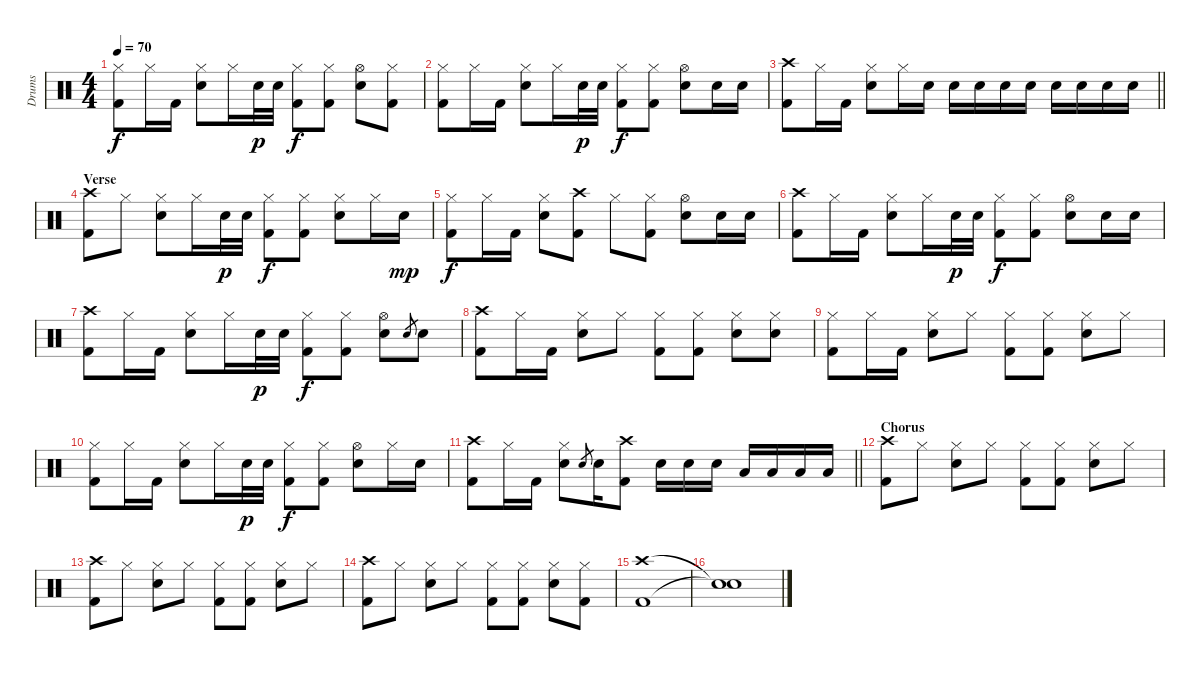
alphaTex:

\track ("Drums" "Drums") {instrument percussion}
\staff {score}
\articulation defaults
\ts (4 4)
\tempo 70
\clef neutral
\ks c
("Hi-Hat (closed)" "Kick (hit) 2").8{dy f} "Hi-Hat (closed)".16 "Kick (hit) 2".16 ("Hi-Hat (closed)" "Electric Snare (hit)").8 "Hi-Hat (closed)".16 "Electric Snare (hit)".32{dy p} "Electric Snare (hit)".32 ("Hi-Hat (closed)" "Kick (hit) 2").8{dy f} ("Hi-Hat (closed)" "Kick (hit) 2").8 ("Hi-Hat (open)" "Electric Snare (hit)").8 ("Hi-Hat (closed)" "Kick (hit) 2").8 |
("Hi-Hat (closed)" "Kick (hit) 2").8 "Hi-Hat (closed)".16 "Kick (hit) 2".16 ("Hi-Hat (closed)" "Electric Snare (hit)").8 "Hi-Hat (closed)".16 "Electric Snare (hit)".32{dy p} "Electric Snare (hit)".32 ("Hi-Hat (closed)" "Kick (hit) 2").8{dy f} ("Hi-Hat (closed)" "Kick (hit) 2").8 ("Hi-Hat (open)" "Electric Snare (hit)").8 "Electric Snare (hit)".16 "Electric Snare (hit)".16 |
\barLineRight lightlight
("Crash high (hit)" "Kick (hit) 2").8 "Hi-Hat (closed)".16 "Kick (hit) 2".16 ("Hi-Hat (closed)" "Electric Snare (hit)").8 "Hi-Hat (closed)".16 "Electric Snare (hit)".16 "Electric Snare (hit)".16 "Electric Snare (hit)".16 "Electric Snare (hit)".16 "Electric Snare (hit)".16 "Electric Snare (hit)".16 "Electric Snare (hit)".16 "Electric Snare (hit)".16 "Electric Snare (hit)".16 |
\section ("" "Verse")
("Crash high (hit)" "Kick (hit) 2").8 "Hi-Hat (closed)".8 ("Hi-Hat (closed)" "Electric Snare (hit)").8 "Hi-Hat (closed)".16 "Electric Snare (hit)".32{dy p} "Electric Snare (hit)".32 ("Hi-Hat (closed)" "Kick (hit) 2").8{dy f} ("Hi-Hat (closed)" "Kick (hit) 2").8 ("Hi-Hat (closed)" "Electric Snare (hit)").8 "Hi-Hat (closed)".16 "Electric Snare (hit)".16{dy mp} |
("Hi-Hat (closed)" "Kick (hit) 2").8{dy f} "Hi-Hat (closed)".16 "Kick (hit) 2".16 ("Hi-Hat (closed)" "Electric Snare (hit)").8 ("Crash high (hit)" "Kick (hit) 2").8 "Hi-Hat (closed)".8 ("Hi-Hat (closed)" "Kick (hit) 2").8 ("Hi-Hat (open)" "Electric Snare (hit)").8 "Electric Snare (hit)".16 "Electric Snare (hit)".16 |
("Crash high (hit)" "Kick (hit) 2").8 "Hi-Hat (closed)".16 "Kick (hit) 2".16 ("Hi-Hat (closed)" "Electric Snare (hit)").8 "Hi-Hat (closed)".16 "Electric Snare (hit)".32{dy p} "Electric Snare (hit)".32 ("Hi-Hat (closed)" "Kick (hit) 2").8{dy f} ("Hi-Hat (closed)" "Kick (hit) 2").8 ("Hi-Hat (open)" "Electric Snare (hit)").8 "Electric Snare (hit)".16 "Electric Snare (hit)".16 |
("Crash high (hit)" "Kick (hit) 2").8 "Hi-Hat (closed)".16 "Kick (hit) 2".16 ("Hi-Hat (closed)" "Electric Snare (hit)").8 "Hi-Hat (closed)".16 "Electric Snare (hit)".32{dy p} "Electric Snare (hit)".32 ("Hi-Hat (closed)" "Kick (hit) 2").8{dy f} ("Hi-Hat (closed)" "Kick (hit) 2").8 ("Hi-Hat (open)" "Electric Snare (hit)").8 "Electric Snare (hit)".8{gr} "Electric Snare (hit)".8 |
("Crash high (hit)" "Kick (hit) 2").8 "Hi-Hat (closed)".16 "Kick (hit) 2".16 ("Hi-Hat (closed)" "Electric Snare (hit)").8 "Hi-Hat (closed)".8 ("Hi-Hat (closed)" "Kick (hit) 2").8 ("Hi-Hat (closed)" "Kick (hit) 2").8 ("Hi-Hat (closed)" "Electric Snare (hit)").8 ("Hi-Hat (closed)" "Electric Snare (hit)").8 |
("Hi-Hat (closed)" "Kick (hit) 2").8 "Hi-Hat (closed)".16 "Kick (hit) 2".16 ("Hi-Hat (closed)" "Electric Snare (hit)").8 "Hi-Hat (closed)".8 ("Hi-Hat (closed)" "Kick (hit) 2").8 ("Hi-Hat (closed)" "Kick (hit) 2").8 ("Hi-Hat (closed)" "Electric Snare (hit)").8 "Hi-Hat (closed)".8 |
("Hi-Hat (closed)" "Kick (hit) 2").8 "Hi-Hat (closed)".16 "Kick (hit) 2".16 ("Hi-Hat (closed)" "Electric Snare (hit)").8 "Hi-Hat (closed)".16 "Electric Snare (hit)".32{dy p} "Electric Snare (hit)".32 ("Hi-Hat (closed)" "Kick (hit) 2").8{dy f} ("Hi-Hat (closed)" "Kick (hit) 2").8 ("Hi-Hat (open)" "Electric Snare (hit)").8 "Hi-Hat (closed)".16 "Electric Snare (hit)".16 |
\barLineRight lightlight
("Crash high (hit)" "Kick (hit) 2").8 "Hi-Hat (closed)".16 "Kick (hit) 2".16 ("Hi-Hat (closed)" "Electric Snare (hit)").8 "Electric Snare (hit)".8{gr} "Electric Snare (hit)".16 ("Crash high (hit)" "Kick (hit) 2").8 "Electric Snare (hit)".16 "Electric Snare (hit)".16 "Electric Snare (hit)".16 "Low Tom (hit)".16 "Low Tom (hit)".16 "Low Floor Tom (hit)".16 "Low Floor Tom (hit)".16 |
\section ("" "Chorus")
("Crash high (hit)" "Kick (hit) 2").8 "Hi-Hat (closed)".8 ("Hi-Hat (closed)" "Electric Snare (hit)").8 "Hi-Hat (closed)".8 ("Hi-Hat (closed)" "Kick (hit) 2").8 ("Hi-Hat (closed)" "Kick (hit) 2").8 ("Hi-Hat (closed)" "Electric Snare (hit)").8 "Hi-Hat (closed)".8 |
("Crash high (hit)" "Kick (hit) 2").8 "Hi-Hat (closed)".8 ("Hi-Hat (closed)" "Electric Snare (hit)").8 "Hi-Hat (closed)".8 ("Hi-Hat (closed)" "Kick (hit) 2").8 ("Hi-Hat (closed)" "Kick (hit) 2").8 ("Hi-Hat (closed)" "Electric Snare (hit)").8 "Hi-Hat (closed)".8 |
("Crash high (hit)" "Kick (hit) 2").8 "Hi-Hat (closed)".8 ("Hi-Hat (closed)" "Electric Snare (hit)").8 "Hi-Hat (closed)".8 ("Hi-Hat (closed)" "Kick (hit) 2").8 ("Hi-Hat (closed)" "Kick (hit) 2").8 ("Hi-Hat (closed)" "Electric Snare (hit)").8 ("Hi-Hat (closed)" "Kick (hit) 2").8 |
("Crash high (hit)" "Kick (hit) 2").1 |
("Snare (hit)"{t} "Snare (hit)"{t}).1
